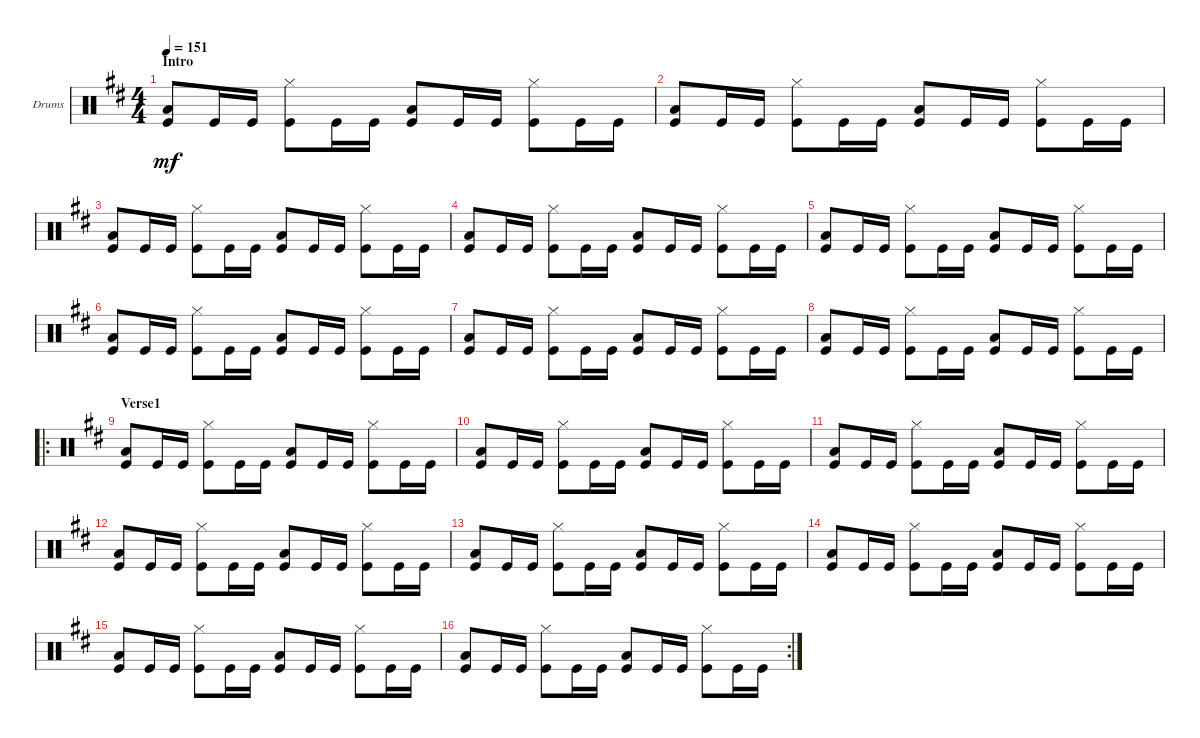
\defaultSystemsLayout 4
\bracketExtendMode groupsimilarinstruments
\firstSystemTrackNameOrientation horizontal
\otherSystemsTrackNameOrientation horizontal
\track ("Drumkit" "Drums") {instrument percussion}
\staff {score}
\articulation defaults
\ts (4 4)
\section ("" "Intro")
\tempo 151
\clef neutral
\ks d
("Kick (hit)" "Low Tom (hit)").8{dy mf} "Kick (hit)".16 "Kick (hit)".16 ("Kick (hit)" "Hi-Hat (closed)").8 "Kick (hit)".16 "Kick (hit)".16 ("Kick (hit)" "Low Tom (hit)").8 "Kick (hit)".16 "Kick (hit)".16 ("Kick (hit)" "Hi-Hat (closed)").8 "Kick (hit)".16 "Kick (hit)".16 |
("Kick (hit)" "Low Tom (hit)").8 "Kick (hit)".16 "Kick (hit)".16 ("Kick (hit)" "Hi-Hat (closed)").8 "Kick (hit)".16 "Kick (hit)".16 ("Kick (hit)" "Low Tom (hit)").8 "Kick (hit)".16 "Kick (hit)".16 ("Kick (hit)" "Hi-Hat (closed)").8 "Kick (hit)".16 "Kick (hit)".16 |
("Kick (hit)" "Low Tom (hit)").8 "Kick (hit)".16 "Kick (hit)".16 ("Kick (hit)" "Hi-Hat (closed)").8 "Kick (hit)".16 "Kick (hit)".16 ("Kick (hit)" "Low Tom (hit)").8 "Kick (hit)".16 "Kick (hit)".16 ("Kick (hit)" "Hi-Hat (closed)").8 "Kick (hit)".16 "Kick (hit)".16 |
("Kick (hit)" "Low Tom (hit)").8 "Kick (hit)".16 "Kick (hit)".16 ("Kick (hit)" "Hi-Hat (closed)").8 "Kick (hit)".16 "Kick (hit)".16 ("Kick (hit)" "Low Tom (hit)").8 "Kick (hit)".16 "Kick (hit)".16 ("Kick (hit)" "Hi-Hat (closed)").8 "Kick (hit)".16 "Kick (hit)".16 |
("Kick (hit)" "Low Tom (hit)").8 "Kick (hit)".16 "Kick (hit)".16 ("Kick (hit)" "Hi-Hat (closed)").8 "Kick (hit)".16 "Kick (hit)".16 ("Kick (hit)" "Low Tom (hit)").8 "Kick (hit)".16 "Kick (hit)".16 ("Kick (hit)" "Hi-Hat (closed)").8 "Kick (hit)".16 "Kick (hit)".16 |
("Kick (hit)" "Low Tom (hit)").8 "Kick (hit)".16 "Kick (hit)".16 ("Kick (hit)" "Hi-Hat (closed)").8 "Kick (hit)".16 "Kick (hit)".16 ("Kick (hit)" "Low Tom (hit)").8 "Kick (hit)".16 "Kick (hit)".16 ("Kick (hit)" "Hi-Hat (closed)").8 "Kick (hit)".16 "Kick (hit)".16 |
("Kick (hit)" "Low Tom (hit)").8 "Kick (hit)".16 "Kick (hit)".16 ("Kick (hit)" "Hi-Hat (closed)").8 "Kick (hit)".16 "Kick (hit)".16 ("Kick (hit)" "Low Tom (hit)").8 "Kick (hit)".16 "Kick (hit)".16 ("Kick (hit)" "Hi-Hat (closed)").8 "Kick (hit)".16 "Kick (hit)".16 |
("Kick (hit)" "Low Tom (hit)").8 "Kick (hit)".16 "Kick (hit)".16 ("Kick (hit)" "Hi-Hat (closed)").8 "Kick (hit)".16 "Kick (hit)".16 ("Kick (hit)" "Low Tom (hit)").8 "Kick (hit)".16 "Kick (hit)".16 ("Kick (hit)" "Hi-Hat (closed)").8 "Kick (hit)".16 "Kick (hit)".16 |
\ro
\section ("" "Verse1")
("Kick (hit)" "Low Tom (hit)").8 "Kick (hit)".16 "Kick (hit)".16 ("Kick (hit)" "Hi-Hat (closed)").8 "Kick (hit)".16 "Kick (hit)".16 ("Kick (hit)" "Low Tom (hit)").8 "Kick (hit)".16 "Kick (hit)".16 ("Kick (hit)" "Hi-Hat (closed)").8 "Kick (hit)".16 "Kick (hit)".16 |
("Kick (hit)" "Low Tom (hit)").8 "Kick (hit)".16 "Kick (hit)".16 ("Kick (hit)" "Hi-Hat (closed)").8 "Kick (hit)".16 "Kick (hit)".16 ("Kick (hit)" "Low Tom (hit)").8 "Kick (hit)".16 "Kick (hit)".16 ("Kick (hit)" "Hi-Hat (closed)").8 "Kick (hit)".16 "Kick (hit)".16 |
("Kick (hit)" "Low Tom (hit)").8 "Kick (hit)".16 "Kick (hit)".16 ("Kick (hit)" "Hi-Hat (closed)").8 "Kick (hit)".16 "Kick (hit)".16 ("Kick (hit)" "Low Tom (hit)").8 "Kick (hit)".16 "Kick (hit)".16 ("Kick (hit)" "Hi-Hat (closed)").8 "Kick (hit)".16 "Kick (hit)".16 |
("Kick (hit)" "Low Tom (hit)").8 "Kick (hit)".16 "Kick (hit)".16 ("Kick (hit)" "Hi-Hat (closed)").8 "Kick (hit)".16 "Kick (hit)".16 ("Kick (hit)" "Low Tom (hit)").8 "Kick (hit)".16 "Kick (hit)".16 ("Kick (hit)" "Hi-Hat (closed)").8 "Kick (hit)".16 "Kick (hit)".16 |
("Kick (hit)" "Low Tom (hit)").8 "Kick (hit)".16 "Kick (hit)".16 ("Kick (hit)" "Hi-Hat (closed)").8 "Kick (hit)".16 "Kick (hit)".16 ("Kick (hit)" "Low Tom (hit)").8 "Kick (hit)".16 "Kick (hit)".16 ("Kick (hit)" "Hi-Hat (closed)").8 "Kick (hit)".16 "Kick (hit)".16 |
("Kick (hit)" "Low Tom (hit)").8 "Kick (hit)".16 "Kick (hit)".16 ("Kick (hit)" "Hi-Hat (closed)").8 "Kick (hit)".16 "Kick (hit)".16 ("Kick (hit)" "Low Tom (hit)").8 "Kick (hit)".16 "Kick (hit)".16 ("Kick (hit)" "Hi-Hat (closed)").8 "Kick (hit)".16 "Kick (hit)".16 |
("Kick (hit)" "Low Tom (hit)").8 "Kick (hit)".16 "Kick (hit)".16 ("Kick (hit)" "Hi-Hat (closed)").8 "Kick (hit)".16 "Kick (hit)".16 ("Kick (hit)" "Low Tom (hit)").8 "Kick (hit)".16 "Kick (hit)".16 ("Kick (hit)" "Hi-Hat (closed)").8 "Kick (hit)".16 "Kick (hit)".16 |
\rc 2
("Kick (hit)" "Low Tom (hit)").8 "Kick (hit)".16 "Kick (hit)".16 ("Kick (hit)" "Hi-Hat (closed)").8 "Kick (hit)".16 "Kick (hit)".16 ("Kick (hit)" "Low Tom (hit)").8 "Kick (hit)".16 "Kick (hit)".16 ("Kick (hit)" "Hi-Hat (closed)").8 "Kick (hit)".16 "Kick (hit)".16
